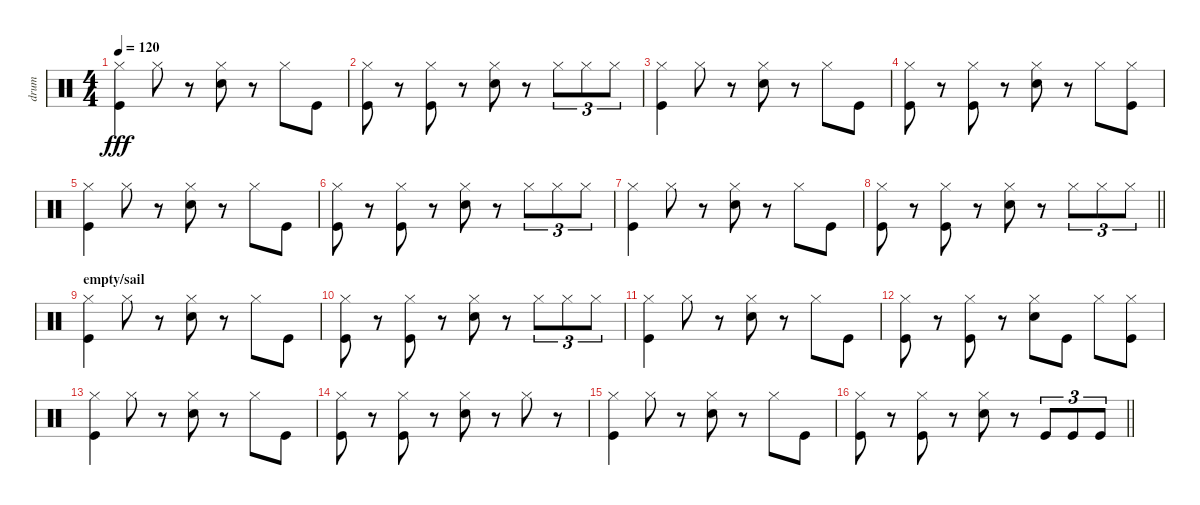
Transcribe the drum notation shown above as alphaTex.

\track ("drum" "drum") {instrument percussion}
\staff {score}
\articulation defaults
\ts (4 4)
\tempo 120
\clef neutral
\ks c
("Hi-Hat (closed)" "Kick (hit)").4{dy fff} "Hi-Hat (closed)".8 r.8 ("Hi-Hat (closed)" "Hand Clap (hit)").8 r.8 "Hi-Hat (closed)".8 "Kick (hit)".8 |
("Hi-Hat (closed)" "Kick (hit)").8 r.8 ("Hi-Hat (closed)" "Kick (hit)").8 r.8 ("Hi-Hat (closed)" "Hand Clap (hit)").8 r.8 "Hi-Hat (closed)".8{tu (3 2)} "Hi-Hat (closed)".8{tu (3 2)} "Hi-Hat (closed)".8{tu (3 2)} |
("Hi-Hat (closed)" "Kick (hit)").4 "Hi-Hat (closed)".8 r.8 ("Hi-Hat (closed)" "Hand Clap (hit)").8 r.8 "Hi-Hat (closed)".8 "Kick (hit)".8 |
("Hi-Hat (closed)" "Kick (hit)").8 r.8 ("Hi-Hat (closed)" "Kick (hit)").8 r.8 ("Hi-Hat (closed)" "Hand Clap (hit)").8 r.8 "Hi-Hat (closed)".8 ("Hi-Hat (closed)" "Kick (hit)").8 |
("Hi-Hat (closed)" "Kick (hit)").4 "Hi-Hat (closed)".8 r.8 ("Hi-Hat (closed)" "Hand Clap (hit)").8 r.8 "Hi-Hat (closed)".8 "Kick (hit)".8 |
("Hi-Hat (closed)" "Kick (hit)").8 r.8 ("Hi-Hat (closed)" "Kick (hit)").8 r.8 ("Hi-Hat (closed)" "Hand Clap (hit)").8 r.8 "Hi-Hat (closed)".8{tu (3 2)} "Hi-Hat (closed)".8{tu (3 2)} "Hi-Hat (closed)".8{tu (3 2)} |
("Hi-Hat (closed)" "Kick (hit)").4 "Hi-Hat (closed)".8 r.8 ("Hi-Hat (closed)" "Hand Clap (hit)").8 r.8 "Hi-Hat (closed)".8 "Kick (hit)".8 |
\barLineRight lightlight
("Hi-Hat (closed)" "Kick (hit)").8 r.8 ("Hi-Hat (closed)" "Kick (hit)").8 r.8 ("Hi-Hat (closed)" "Hand Clap (hit)").8 r.8 "Hi-Hat (closed)".8{tu (3 2)} "Hi-Hat (closed)".8{tu (3 2)} "Hi-Hat (closed)".8{tu (3 2)} |
\section ("" "empty/sail")
("Hi-Hat (closed)" "Kick (hit)").4 "Hi-Hat (closed)".8 r.8 ("Hi-Hat (closed)" "Hand Clap (hit)").8 r.8 "Hi-Hat (closed)".8 "Kick (hit)".8 |
("Hi-Hat (closed)" "Kick (hit)").8 r.8 ("Hi-Hat (closed)" "Kick (hit)").8 r.8 ("Hi-Hat (closed)" "Hand Clap (hit)").8 r.8 "Hi-Hat (closed)".8{tu (3 2)} "Hi-Hat (closed)".8{tu (3 2)} "Hi-Hat (closed)".8{tu (3 2)} |
("Hi-Hat (closed)" "Kick (hit)").4 "Hi-Hat (closed)".8 r.8 ("Hi-Hat (closed)" "Hand Clap (hit)").8 r.8 "Hi-Hat (closed)".8 "Kick (hit)".8 |
("Hi-Hat (closed)" "Kick (hit)").8 r.8 ("Hi-Hat (closed)" "Kick (hit)").8 r.8 ("Hi-Hat (closed)" "Hand Clap (hit)").8 "Kick (hit)".8 "Hi-Hat (closed)".8 ("Hi-Hat (closed)" "Kick (hit)").8 |
("Hi-Hat (closed)" "Kick (hit)").4 "Hi-Hat (closed)".8 r.8 ("Hi-Hat (closed)" "Hand Clap (hit)").8 r.8 "Hi-Hat (closed)".8 "Kick (hit)".8 |
("Hi-Hat (closed)" "Kick (hit)").8 r.8 ("Hi-Hat (closed)" "Kick (hit)").8 r.8 ("Hi-Hat (closed)" "Hand Clap (hit)").8 r.8 "Hi-Hat (closed)".8 r.8 |
("Hi-Hat (closed)" "Kick (hit)").4 "Hi-Hat (closed)".8 r.8 ("Hi-Hat (closed)" "Hand Clap (hit)").8 r.8 "Hi-Hat (closed)".8 "Kick (hit)".8 |
\barLineRight lightlight
("Hi-Hat (closed)" "Kick (hit)").8 r.8 ("Hi-Hat (closed)" "Kick (hit)").8 r.8 ("Hi-Hat (closed)" "Hand Clap (hit)").8 r.8 "Kick (hit)".8{tu (3 2)} "Kick (hit)".8{tu (3 2)} "Kick (hit)".8{tu (3 2)}
